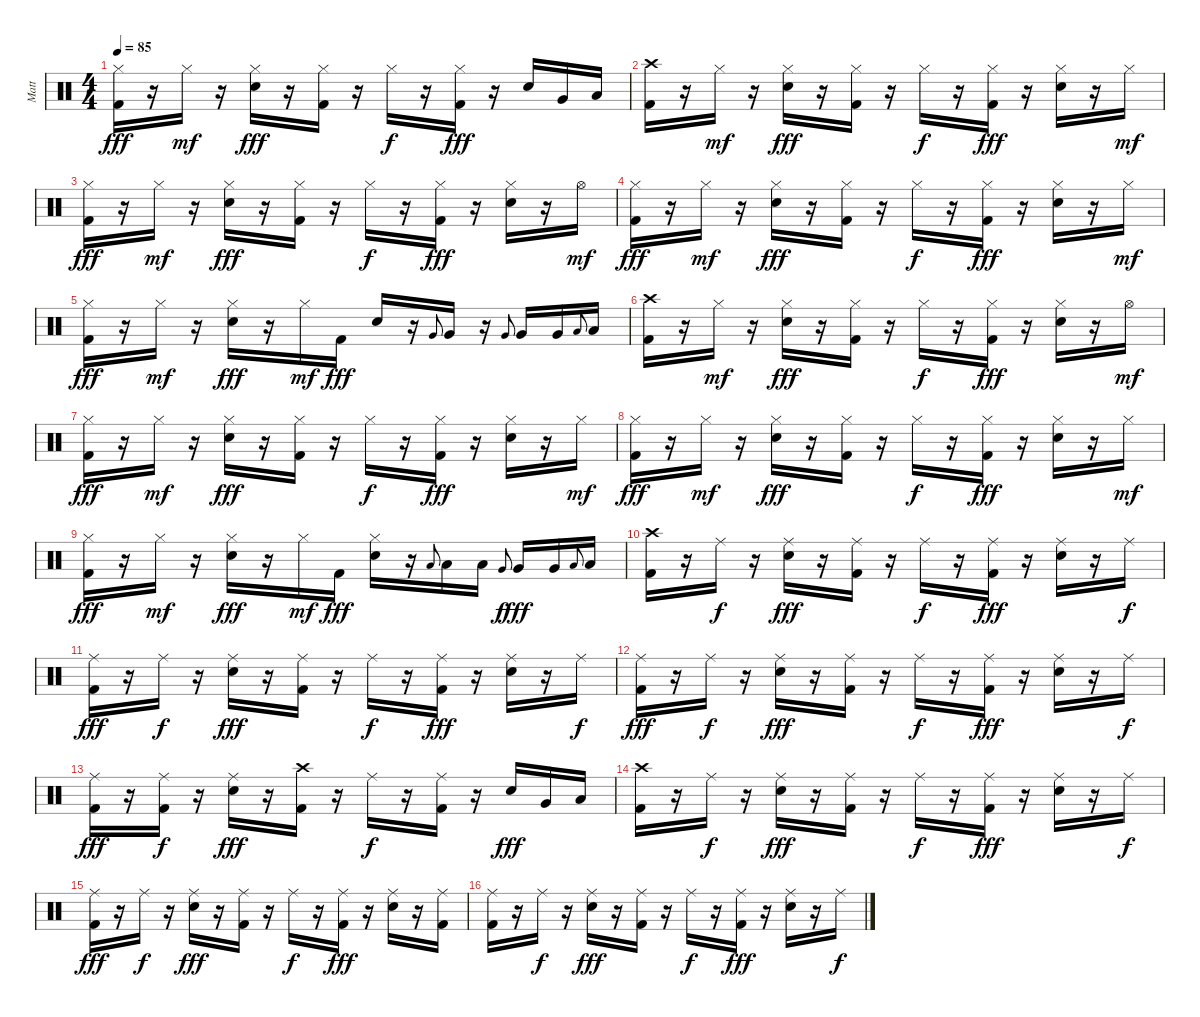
\track ("Matt" "Matt") {instrument percussion}
\staff {score}
\articulation defaults
\ts (4 4)
\tempo 85
\clef neutral
\ks c
("Hi-Hat (closed)" "Kick (hit) 2").16{dy fff} r.16 "Hi-Hat (closed)".16{dy mf} r.16 ("Hi-Hat (closed)" "Electric Snare (hit)").16{dy fff} r.16 ("Hi-Hat (closed)" "Kick (hit) 2").16 r.16 "Hi-Hat (closed)".16{dy f} r.16 ("Hi-Hat (closed)" "Kick (hit) 2").16{dy fff} r.16 "Electric Snare (hit)".16 "Very Low Tom (hit)".16 "Low Floor Tom (hit)".16 |
("Crash high (hit)" "Kick (hit) 2").16 r.16 "Hi-Hat (closed)".16{dy mf} r.16 ("Hi-Hat (closed)" "Electric Snare (hit)").16{dy fff} r.16 ("Hi-Hat (closed)" "Kick (hit) 2").16 r.16 "Hi-Hat (closed)".16{dy f} r.16 ("Hi-Hat (closed)" "Kick (hit) 2").16{dy fff} r.16 ("Hi-Hat (closed)" "Electric Snare (hit)").16 r.16 "Hi-Hat (closed)".16{dy mf} |
("Hi-Hat (closed)" "Kick (hit) 2").16{dy fff} r.16 "Hi-Hat (closed)".16{dy mf} r.16 ("Hi-Hat (closed)" "Electric Snare (hit)").16{dy fff} r.16 ("Hi-Hat (closed)" "Kick (hit) 2").16 r.16 "Hi-Hat (closed)".16{dy f} r.16 ("Hi-Hat (closed)" "Kick (hit) 2").16{dy fff} r.16 ("Hi-Hat (closed)" "Electric Snare (hit)").16 r.16 "Hi-Hat (open)".16{dy mf} |
("Hi-Hat (closed)" "Kick (hit) 2").16{dy fff} r.16 "Hi-Hat (closed)".16{dy mf} r.16 ("Hi-Hat (closed)" "Electric Snare (hit)").16{dy fff} r.16 ("Hi-Hat (closed)" "Kick (hit) 2").16 r.16 "Hi-Hat (closed)".16{dy f} r.16 ("Hi-Hat (closed)" "Kick (hit) 2").16{dy fff} r.16 ("Hi-Hat (closed)" "Electric Snare (hit)").16 r.16 "Hi-Hat (closed)".16{dy mf} |
("Hi-Hat (closed)" "Kick (hit) 2").16{dy fff} r.16 "Hi-Hat (closed)".16{dy mf} r.16 ("Hi-Hat (closed)" "Electric Snare (hit)").16{dy fff} r.16 "Hi-Hat (closed)".16{dy mf} "Kick (hit) 2".16{dy fff} "Electric Snare (hit)".16 r.16 "Very Low Tom (hit)".8{gr onbeat} "Very Low Tom (hit)".16 r.16 "Very Low Tom (hit)".8{gr onbeat} "Very Low Tom (hit)".16 "Very Low Tom (hit)".16 "Low Floor Tom (hit)".8{gr onbeat} "Low Floor Tom (hit)".16 |
("Crash high (hit)" "Kick (hit) 2").16 r.16 "Hi-Hat (closed)".16{dy mf} r.16 ("Hi-Hat (closed)" "Electric Snare (hit)").16{dy fff} r.16 ("Hi-Hat (closed)" "Kick (hit) 2").16 r.16 "Hi-Hat (closed)".16{dy f} r.16 ("Hi-Hat (closed)" "Kick (hit) 2").16{dy fff} r.16 ("Hi-Hat (closed)" "Electric Snare (hit)").16 r.16 "Hi-Hat (open)".16{dy mf} |
("Hi-Hat (closed)" "Kick (hit) 2").16{dy fff} r.16 "Hi-Hat (closed)".16{dy mf} r.16 ("Hi-Hat (closed)" "Electric Snare (hit)").16{dy fff} r.16 ("Hi-Hat (closed)" "Kick (hit) 2").16 r.16 "Hi-Hat (closed)".16{dy f} r.16 ("Hi-Hat (closed)" "Kick (hit) 2").16{dy fff} r.16 ("Hi-Hat (closed)" "Electric Snare (hit)").16 r.16 "Hi-Hat (closed)".16{dy mf} |
("Hi-Hat (closed)" "Kick (hit) 2").16{dy fff} r.16 "Hi-Hat (closed)".16{dy mf} r.16 ("Hi-Hat (closed)" "Electric Snare (hit)").16{dy fff} r.16 ("Hi-Hat (closed)" "Kick (hit) 2").16 r.16 "Hi-Hat (closed)".16{dy f} r.16 ("Hi-Hat (closed)" "Kick (hit) 2").16{dy fff} r.16 ("Hi-Hat (closed)" "Electric Snare (hit)").16 r.16 "Hi-Hat (closed)".16{dy mf} |
("Hi-Hat (closed)" "Kick (hit) 2").16{dy fff} r.16 "Hi-Hat (closed)".16{dy mf} r.16 ("Hi-Hat (closed)" "Electric Snare (hit)").16{dy fff} r.16 "Hi-Hat (closed)".16{dy mf} "Kick (hit) 2".16{dy fff} ("Hi-Hat (closed)" "Electric Snare (hit)").16 r.16 "Low Tom (hit)".8{gr onbeat} "Low Tom (hit)".16 "Low Tom (hit)".16 "Very Low Tom (hit)".8{gr onbeat dy f} "Very Low Tom (hit)".16{dy fff} "Very Low Tom (hit)".16 "Low Floor Tom (hit)".8{gr onbeat} "Low Floor Tom (hit)".16 |
("Crash high (hit)" "Kick (hit) 2").16 r.16 "Ride (middle)".16{dy f} r.16 ("Ride (middle)" "Electric Snare (hit)").16{dy fff} r.16 ("Ride (middle)" "Kick (hit) 2").16 r.16 "Ride (middle)".16{dy f} r.16 ("Ride (middle)" "Kick (hit) 2").16{dy fff} r.16 ("Ride (middle)" "Electric Snare (hit)").16 r.16 "Ride (middle)".16{dy f} |
("Ride (middle)" "Kick (hit) 2").16{dy fff} r.16 "Ride (middle)".16{dy f} r.16 ("Ride (middle)" "Electric Snare (hit)").16{dy fff} r.16 ("Ride (middle)" "Kick (hit) 2").16 r.16 "Ride (middle)".16{dy f} r.16 ("Ride (middle)" "Kick (hit) 2").16{dy fff} r.16 ("Ride (middle)" "Electric Snare (hit)").16 r.16 "Ride (middle)".16{dy f} |
("Ride (middle)" "Kick (hit) 2").16{dy fff} r.16 "Ride (middle)".16{dy f} r.16 ("Ride (middle)" "Electric Snare (hit)").16{dy fff} r.16 ("Ride (middle)" "Kick (hit) 2").16 r.16 "Ride (middle)".16{dy f} r.16 ("Ride (middle)" "Kick (hit) 2").16{dy fff} r.16 ("Ride (middle)" "Electric Snare (hit)").16 r.16 "Ride (middle)".16{dy f} |
("Ride (middle)" "Kick (hit) 2").16{dy fff} r.16 ("Ride (middle)" "Kick (hit) 2").16{dy f} r.16 ("Ride (middle)" "Electric Snare (hit)").16{dy fff} r.16 ("Crash high (hit)" "Kick (hit) 2").16 r.16 "Ride (middle)".16{dy f} r.16 ("Ride (middle)" "Kick (hit) 2").16 r.16 "Electric Snare (hit)".16{dy fff} "Very Low Tom (hit)".16 "Low Floor Tom (hit)".16 |
("Crash high (hit)" "Kick (hit) 2").16 r.16 "Ride (middle)".16{dy f} r.16 ("Ride (middle)" "Electric Snare (hit)").16{dy fff} r.16 ("Ride (middle)" "Kick (hit) 2").16 r.16 "Ride (middle)".16{dy f} r.16 ("Ride (middle)" "Kick (hit) 2").16{dy fff} r.16 ("Ride (middle)" "Electric Snare (hit)").16 r.16 "Ride (middle)".16{dy f} |
("Ride (middle)" "Kick (hit) 2").16{dy fff} r.16 "Ride (middle)".16{dy f} r.16 ("Ride (middle)" "Electric Snare (hit)").16{dy fff} r.16 ("Ride (middle)" "Kick (hit) 2").16 r.16 "Ride (middle)".16{dy f} r.16 ("Ride (middle)" "Kick (hit) 2").16{dy fff} r.16 ("Ride (middle)" "Electric Snare (hit)").16 r.16 ("Ride (middle)" "Kick (hit) 2").16 |
("Ride (middle)" "Kick (hit) 2").16 r.16 "Ride (middle)".16{dy f} r.16 ("Ride (middle)" "Electric Snare (hit)").16{dy fff} r.16 ("Ride (middle)" "Kick (hit) 2").16 r.16 "Ride (middle)".16{dy f} r.16 ("Ride (middle)" "Kick (hit) 2").16{dy fff} r.16 ("Ride (middle)" "Electric Snare (hit)").16 r.16 "Ride (middle)".16{dy f}
